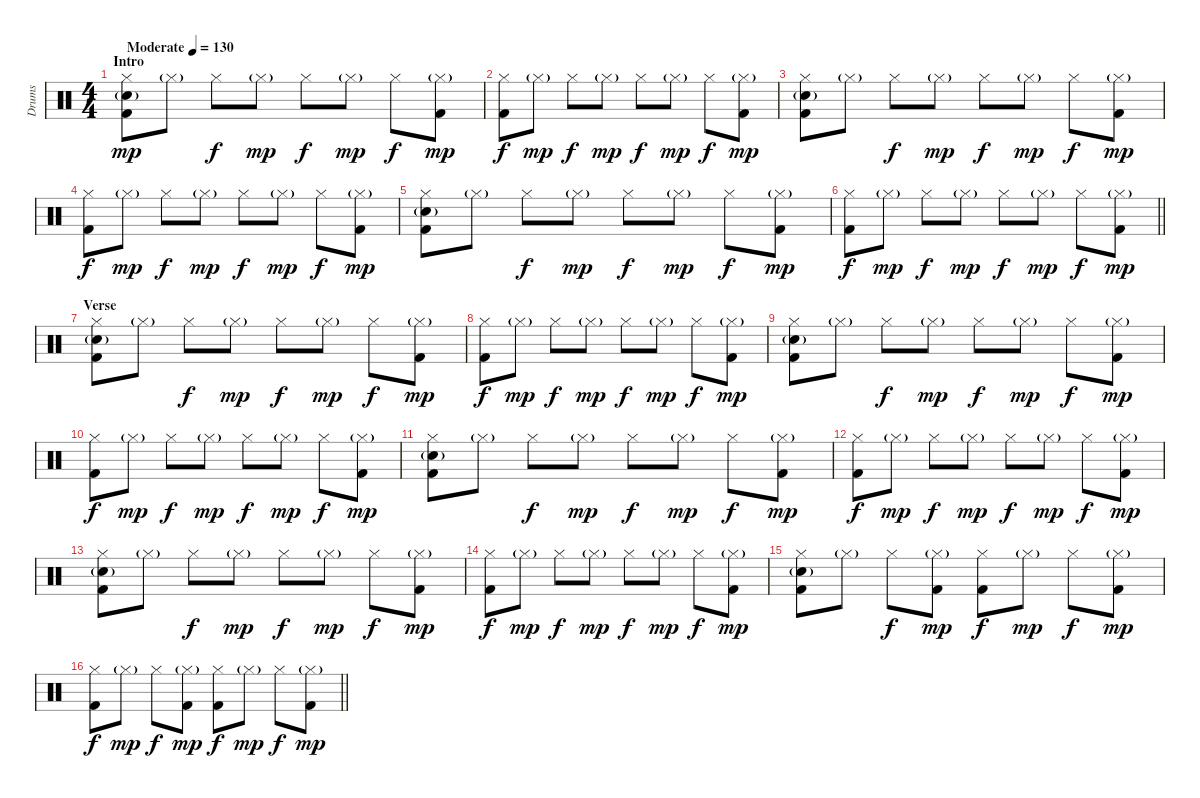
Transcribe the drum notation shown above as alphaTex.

\track ("Drums" "Drums") {instrument percussion}
\staff {score}
\articulation defaults
\ts (4 4)
\section ("" "Intro")
\tempo (130 "Moderate")
\clef neutral
\ks c
("Hi-Hat (closed)" "Snare (hit) 2"{g} "Kick (hit) 2").8{dy mp} "Hi-Hat (closed)"{g}.8 "Hi-Hat (closed)".8{dy f} "Hi-Hat (closed)"{g}.8{dy mp} "Hi-Hat (closed)".8{dy f} "Hi-Hat (closed)"{g}.8{dy mp} "Hi-Hat (closed)".8{dy f} ("Hi-Hat (closed)"{g} "Kick (hit) 2").8{dy mp} |
("Hi-Hat (closed)" "Kick (hit) 2").8{dy f} "Hi-Hat (closed)"{g}.8{dy mp} "Hi-Hat (closed)".8{dy f} "Hi-Hat (closed)"{g}.8{dy mp} "Hi-Hat (closed)".8{dy f} "Hi-Hat (closed)"{g}.8{dy mp} "Hi-Hat (closed)".8{dy f} ("Hi-Hat (closed)"{g} "Kick (hit) 2").8{dy mp} |
("Hi-Hat (closed)" "Snare (hit) 2"{g} "Kick (hit) 2").8 "Hi-Hat (closed)"{g}.8 "Hi-Hat (closed)".8{dy f} "Hi-Hat (closed)"{g}.8{dy mp} "Hi-Hat (closed)".8{dy f} "Hi-Hat (closed)"{g}.8{dy mp} "Hi-Hat (closed)".8{dy f} ("Hi-Hat (closed)"{g} "Kick (hit) 2").8{dy mp} |
("Hi-Hat (closed)" "Kick (hit) 2").8{dy f} "Hi-Hat (closed)"{g}.8{dy mp} "Hi-Hat (closed)".8{dy f} "Hi-Hat (closed)"{g}.8{dy mp} "Hi-Hat (closed)".8{dy f} "Hi-Hat (closed)"{g}.8{dy mp} "Hi-Hat (closed)".8{dy f} ("Hi-Hat (closed)"{g} "Kick (hit) 2").8{dy mp} |
("Hi-Hat (closed)" "Snare (hit) 2"{g} "Kick (hit) 2").8 "Hi-Hat (closed)"{g}.8 "Hi-Hat (closed)".8{dy f} "Hi-Hat (closed)"{g}.8{dy mp} "Hi-Hat (closed)".8{dy f} "Hi-Hat (closed)"{g}.8{dy mp} "Hi-Hat (closed)".8{dy f} ("Hi-Hat (closed)"{g} "Kick (hit) 2").8{dy mp} |
\barLineRight lightlight
("Hi-Hat (closed)" "Kick (hit) 2").8{dy f} "Hi-Hat (closed)"{g}.8{dy mp} "Hi-Hat (closed)".8{dy f} "Hi-Hat (closed)"{g}.8{dy mp} "Hi-Hat (closed)".8{dy f} "Hi-Hat (closed)"{g}.8{dy mp} "Hi-Hat (closed)".8{dy f} ("Hi-Hat (closed)"{g} "Kick (hit) 2").8{dy mp} |
\section ("" "Verse")
("Hi-Hat (closed)" "Snare (hit) 2"{g} "Kick (hit) 2").8 "Hi-Hat (closed)"{g}.8 "Hi-Hat (closed)".8{dy f} "Hi-Hat (closed)"{g}.8{dy mp} "Hi-Hat (closed)".8{dy f} "Hi-Hat (closed)"{g}.8{dy mp} "Hi-Hat (closed)".8{dy f} ("Hi-Hat (closed)"{g} "Kick (hit) 2").8{dy mp} |
("Hi-Hat (closed)" "Kick (hit) 2").8{dy f} "Hi-Hat (closed)"{g}.8{dy mp} "Hi-Hat (closed)".8{dy f} "Hi-Hat (closed)"{g}.8{dy mp} "Hi-Hat (closed)".8{dy f} "Hi-Hat (closed)"{g}.8{dy mp} "Hi-Hat (closed)".8{dy f} ("Hi-Hat (closed)"{g} "Kick (hit) 2").8{dy mp} |
("Hi-Hat (closed)" "Snare (hit) 2"{g} "Kick (hit) 2").8 "Hi-Hat (closed)"{g}.8 "Hi-Hat (closed)".8{dy f} "Hi-Hat (closed)"{g}.8{dy mp} "Hi-Hat (closed)".8{dy f} "Hi-Hat (closed)"{g}.8{dy mp} "Hi-Hat (closed)".8{dy f} ("Hi-Hat (closed)"{g} "Kick (hit) 2").8{dy mp} |
("Hi-Hat (closed)" "Kick (hit) 2").8{dy f} "Hi-Hat (closed)"{g}.8{dy mp} "Hi-Hat (closed)".8{dy f} "Hi-Hat (closed)"{g}.8{dy mp} "Hi-Hat (closed)".8{dy f} "Hi-Hat (closed)"{g}.8{dy mp} "Hi-Hat (closed)".8{dy f} ("Hi-Hat (closed)"{g} "Kick (hit) 2").8{dy mp} |
("Hi-Hat (closed)" "Snare (hit) 2"{g} "Kick (hit) 2").8 "Hi-Hat (closed)"{g}.8 "Hi-Hat (closed)".8{dy f} "Hi-Hat (closed)"{g}.8{dy mp} "Hi-Hat (closed)".8{dy f} "Hi-Hat (closed)"{g}.8{dy mp} "Hi-Hat (closed)".8{dy f} ("Hi-Hat (closed)"{g} "Kick (hit) 2").8{dy mp} |
("Hi-Hat (closed)" "Kick (hit) 2").8{dy f} "Hi-Hat (closed)"{g}.8{dy mp} "Hi-Hat (closed)".8{dy f} "Hi-Hat (closed)"{g}.8{dy mp} "Hi-Hat (closed)".8{dy f} "Hi-Hat (closed)"{g}.8{dy mp} "Hi-Hat (closed)".8{dy f} ("Hi-Hat (closed)"{g} "Kick (hit) 2").8{dy mp} |
("Hi-Hat (closed)" "Snare (hit) 2"{g} "Kick (hit) 2").8 "Hi-Hat (closed)"{g}.8 "Hi-Hat (closed)".8{dy f} "Hi-Hat (closed)"{g}.8{dy mp} "Hi-Hat (closed)".8{dy f} "Hi-Hat (closed)"{g}.8{dy mp} "Hi-Hat (closed)".8{dy f} ("Hi-Hat (closed)"{g} "Kick (hit) 2").8{dy mp} |
("Hi-Hat (closed)" "Kick (hit) 2").8{dy f} "Hi-Hat (closed)"{g}.8{dy mp} "Hi-Hat (closed)".8{dy f} "Hi-Hat (closed)"{g}.8{dy mp} "Hi-Hat (closed)".8{dy f} "Hi-Hat (closed)"{g}.8{dy mp} "Hi-Hat (closed)".8{dy f} ("Hi-Hat (closed)"{g} "Kick (hit) 2").8{dy mp} |
("Hi-Hat (closed)" "Snare (hit) 2"{g} "Kick (hit) 2").8 "Hi-Hat (closed)"{g}.8 "Hi-Hat (closed)".8{dy f} ("Hi-Hat (closed)"{g} "Kick (hit) 2").8{dy mp} ("Hi-Hat (closed)" "Kick (hit) 2").8{dy f} "Hi-Hat (closed)"{g}.8{dy mp} "Hi-Hat (closed)".8{dy f} ("Hi-Hat (closed)"{g} "Kick (hit) 2").8{dy mp} |
\barLineRight lightlight
("Hi-Hat (closed)" "Kick (hit) 2").8{dy f} "Hi-Hat (closed)"{g}.8{dy mp} "Hi-Hat (closed)".8{dy f} ("Hi-Hat (closed)"{g} "Kick (hit) 2").8{dy mp} ("Hi-Hat (closed)" "Kick (hit) 2").8{dy f} "Hi-Hat (closed)"{g}.8{dy mp} "Hi-Hat (closed)".8{dy f} ("Hi-Hat (closed)"{g} "Kick (hit) 2").8{dy mp}
